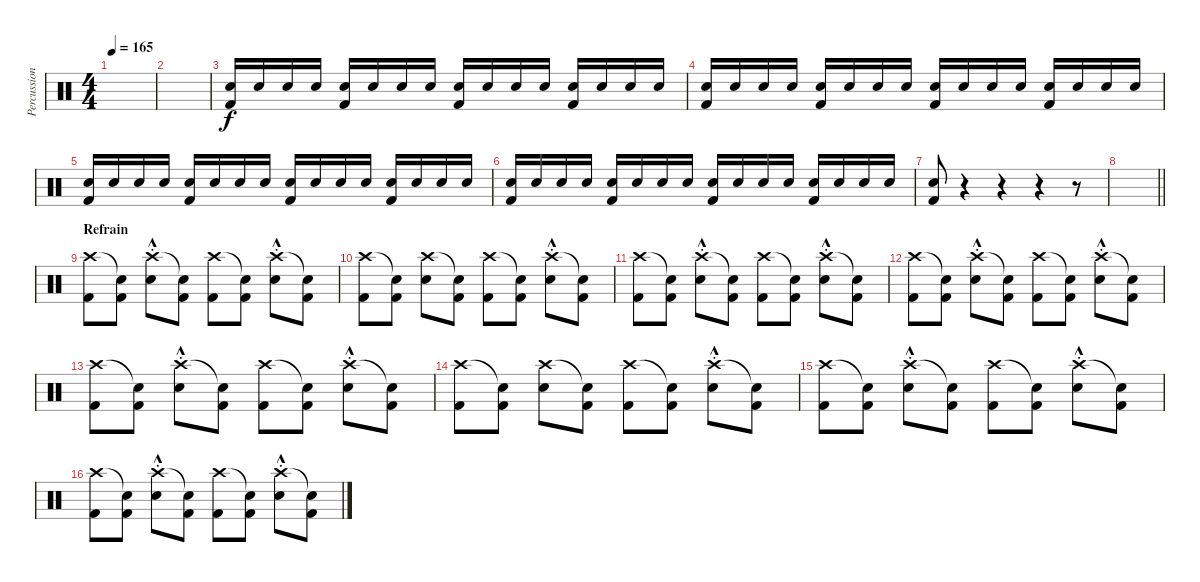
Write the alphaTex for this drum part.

\track ("Percussions" "Percussion") {instrument percussion}
\staff {score}
\articulation defaults
\ts (4 4)
\tempo 165
\clef neutral
\ks c
|
|
("Electric Snare (hit)" "Kick (hit) 2").16 "Electric Snare (hit)".16 "Electric Snare (hit)".16 "Electric Snare (hit)".16 ("Electric Snare (hit)" "Kick (hit) 2").16 "Electric Snare (hit)".16 "Electric Snare (hit)".16 "Electric Snare (hit)".16 ("Electric Snare (hit)" "Kick (hit) 2").16 "Electric Snare (hit)".16 "Electric Snare (hit)".16 "Electric Snare (hit)".16 ("Electric Snare (hit)" "Kick (hit) 2").16 "Electric Snare (hit)".16 "Electric Snare (hit)".16 "Electric Snare (hit)".16 |
("Electric Snare (hit)" "Kick (hit) 2").16 "Electric Snare (hit)".16 "Electric Snare (hit)".16 "Electric Snare (hit)".16 ("Electric Snare (hit)" "Kick (hit) 2").16 "Electric Snare (hit)".16 "Electric Snare (hit)".16 "Electric Snare (hit)".16 ("Electric Snare (hit)" "Kick (hit) 2").16 "Electric Snare (hit)".16 "Electric Snare (hit)".16 "Electric Snare (hit)".16 ("Electric Snare (hit)" "Kick (hit) 2").16 "Electric Snare (hit)".16 "Electric Snare (hit)".16 "Electric Snare (hit)".16 |
("Electric Snare (hit)" "Kick (hit) 2").16 "Electric Snare (hit)".16 "Electric Snare (hit)".16 "Electric Snare (hit)".16 ("Electric Snare (hit)" "Kick (hit) 2").16 "Electric Snare (hit)".16 "Electric Snare (hit)".16 "Electric Snare (hit)".16 ("Electric Snare (hit)" "Kick (hit) 2").16 "Electric Snare (hit)".16 "Electric Snare (hit)".16 "Electric Snare (hit)".16 ("Electric Snare (hit)" "Kick (hit) 2").16 "Electric Snare (hit)".16 "Electric Snare (hit)".16 "Electric Snare (hit)".16 |
("Electric Snare (hit)" "Kick (hit) 2").16 "Electric Snare (hit)".16 "Electric Snare (hit)".16 "Electric Snare (hit)".16 ("Electric Snare (hit)" "Kick (hit) 2").16 "Electric Snare (hit)".16 "Electric Snare (hit)".16 "Electric Snare (hit)".16 ("Electric Snare (hit)" "Kick (hit) 2").16 "Electric Snare (hit)".16 "Electric Snare (hit)".16 "Electric Snare (hit)".16 ("Electric Snare (hit)" "Kick (hit) 2").16 "Electric Snare (hit)".16 "Electric Snare (hit)".16 "Electric Snare (hit)".16 |
("Electric Snare (hit)" "Kick (hit) 2").8 r.4 r.4 r.4 r.8 |
\barLineRight lightlight
|
\section ("" "Refrain")
("Crash high (hit)" "Kick (hit) 2").8 ("Snare (hit)"{t} "Kick (hit) 2").8 ("Crash high (hit)"{hac st} "Electric Snare (hit)"{hac st}).8 ("Snare (hit)"{t} "Kick (hit) 2").8 ("Crash high (hit)" "Kick (hit) 2").8 ("Snare (hit)"{t} "Kick (hit) 2").8 ("Crash high (hit)"{hac st} "Electric Snare (hit)"{hac st}).8 ("Snare (hit)"{t} "Kick (hit) 2").8 |
("Crash high (hit)" "Kick (hit) 2").8 ("Snare (hit)"{t} "Kick (hit) 2").8 ("Crash high (hit)" "Electric Snare (hit)").8 ("Snare (hit)"{t} "Kick (hit) 2").8 ("Crash high (hit)" "Kick (hit) 2").8 ("Snare (hit)"{t} "Kick (hit) 2").8 ("Crash high (hit)"{hac st} "Electric Snare (hit)"{hac st}).8 ("Snare (hit)"{t} "Kick (hit) 2").8 |
("Crash high (hit)" "Kick (hit) 2").8 ("Snare (hit)"{t} "Kick (hit) 2").8 ("Crash high (hit)"{hac st} "Electric Snare (hit)"{hac st}).8 ("Snare (hit)"{t} "Kick (hit) 2").8 ("Crash high (hit)" "Kick (hit) 2").8 ("Snare (hit)"{t} "Kick (hit) 2").8 ("Crash high (hit)"{hac st} "Electric Snare (hit)"{hac st}).8 ("Snare (hit)"{t} "Kick (hit) 2").8 |
("Crash high (hit)" "Kick (hit) 2").8 ("Snare (hit)"{t} "Kick (hit) 2").8 ("Crash high (hit)"{hac st} "Electric Snare (hit)"{hac st}).8 ("Snare (hit)"{t} "Kick (hit) 2").8 ("Crash high (hit)" "Kick (hit) 2").8 ("Snare (hit)"{t} "Kick (hit) 2").8 ("Crash high (hit)"{hac st} "Electric Snare (hit)"{hac st}).8 ("Snare (hit)"{t} "Kick (hit) 2").8 |
("Crash high (hit)" "Kick (hit) 2").8 ("Snare (hit)"{t} "Kick (hit) 2").8 ("Crash high (hit)"{hac st} "Electric Snare (hit)"{hac st}).8 ("Snare (hit)"{t} "Kick (hit) 2").8 ("Crash high (hit)" "Kick (hit) 2").8 ("Snare (hit)"{t} "Kick (hit) 2").8 ("Crash high (hit)"{hac st} "Electric Snare (hit)"{hac st}).8 ("Snare (hit)"{t} "Kick (hit) 2").8 |
("Crash high (hit)" "Kick (hit) 2").8 ("Snare (hit)"{t} "Kick (hit) 2").8 ("Crash high (hit)" "Electric Snare (hit)").8 ("Snare (hit)"{t} "Kick (hit) 2").8 ("Crash high (hit)" "Kick (hit) 2").8 ("Snare (hit)"{t} "Kick (hit) 2").8 ("Crash high (hit)"{hac st} "Electric Snare (hit)"{hac st}).8 ("Snare (hit)"{t} "Kick (hit) 2").8 |
("Crash high (hit)" "Kick (hit) 2").8 ("Snare (hit)"{t} "Kick (hit) 2").8 ("Crash high (hit)"{hac st} "Electric Snare (hit)"{hac st}).8 ("Snare (hit)"{t} "Kick (hit) 2").8 ("Crash high (hit)" "Kick (hit) 2").8 ("Snare (hit)"{t} "Kick (hit) 2").8 ("Crash high (hit)"{hac st} "Electric Snare (hit)"{hac st}).8 ("Snare (hit)"{t} "Kick (hit) 2").8 |
("Crash high (hit)" "Kick (hit) 2").8 ("Snare (hit)"{t} "Kick (hit) 2").8 ("Crash high (hit)"{hac st} "Electric Snare (hit)"{hac st}).8 ("Snare (hit)"{t} "Kick (hit) 2").8 ("Crash high (hit)" "Kick (hit) 2").8 ("Snare (hit)"{t} "Kick (hit) 2").8 ("Crash high (hit)"{hac st} "Electric Snare (hit)"{hac st}).8 ("Snare (hit)"{t} "Kick (hit) 2").8
